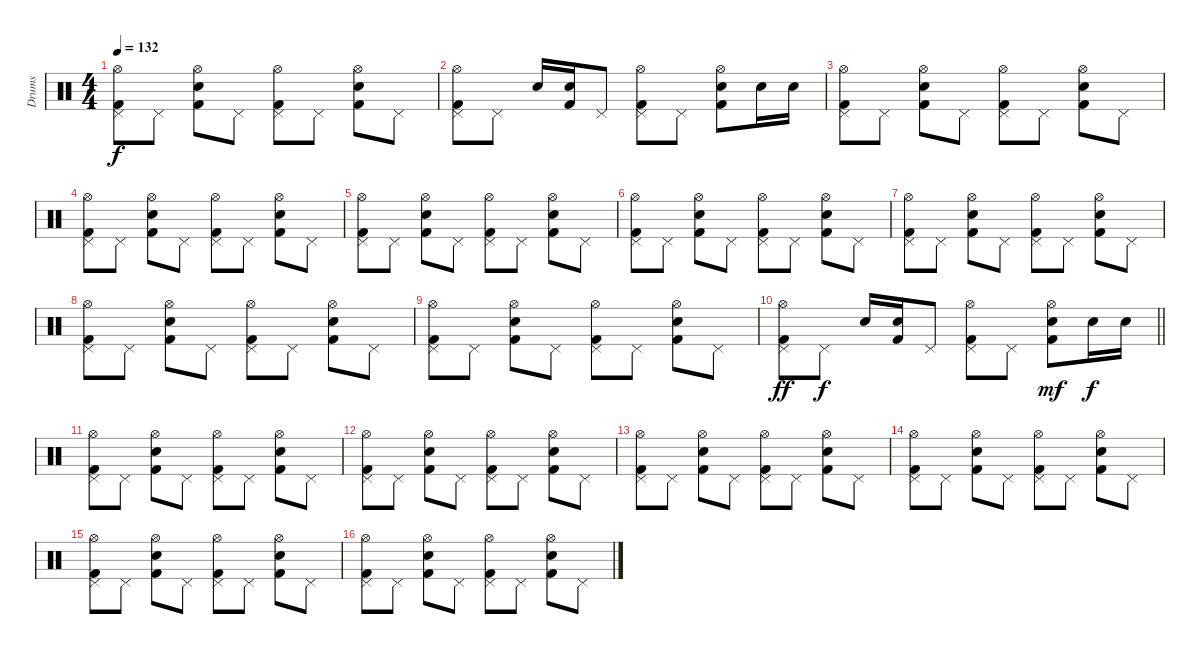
\track ("Drums" "Drums") {instrument percussion}
\staff {score}
\articulation defaults
\ts (4 4)
\tempo 132
\clef neutral
\ks c
("Hi-Hat (open)" "Pedal Hi-Hat (hit)" "Kick (hit) 2").8{dy f} "Pedal Hi-Hat (hit)".8 ("Electric Snare (hit)" "Hi-Hat (open)" "Kick (hit) 2").8 "Pedal Hi-Hat (hit)".8 ("Hi-Hat (open)" "Pedal Hi-Hat (hit)" "Kick (hit) 2").8 "Pedal Hi-Hat (hit)".8 ("Electric Snare (hit)" "Hi-Hat (open)" "Kick (hit) 2").8 "Pedal Hi-Hat (hit)".8 |
("Hi-Hat (open)" "Pedal Hi-Hat (hit)" "Kick (hit) 2").8 "Pedal Hi-Hat (hit)".8 "Electric Snare (hit)".16 ("Electric Snare (hit)" "Kick (hit) 2").16 "Pedal Hi-Hat (hit)".8 ("Hi-Hat (open)" "Pedal Hi-Hat (hit)" "Kick (hit) 2").8 "Pedal Hi-Hat (hit)".8 ("Electric Snare (hit)" "Hi-Hat (open)" "Kick (hit) 2").8 "Electric Snare (hit)".16 "Electric Snare (hit)".16 |
("Hi-Hat (open)" "Pedal Hi-Hat (hit)" "Kick (hit) 2").8 "Pedal Hi-Hat (hit)".8 ("Electric Snare (hit)" "Hi-Hat (open)" "Kick (hit) 2").8 "Pedal Hi-Hat (hit)".8 ("Hi-Hat (open)" "Pedal Hi-Hat (hit)" "Kick (hit) 2").8 "Pedal Hi-Hat (hit)".8 ("Electric Snare (hit)" "Hi-Hat (open)" "Kick (hit) 2").8 "Pedal Hi-Hat (hit)".8 |
("Hi-Hat (open)" "Pedal Hi-Hat (hit)" "Kick (hit) 2").8 "Pedal Hi-Hat (hit)".8 ("Electric Snare (hit)" "Hi-Hat (open)" "Kick (hit) 2").8 "Pedal Hi-Hat (hit)".8 ("Hi-Hat (open)" "Pedal Hi-Hat (hit)" "Kick (hit) 2").8 "Pedal Hi-Hat (hit)".8 ("Electric Snare (hit)" "Hi-Hat (open)" "Kick (hit) 2").8 "Pedal Hi-Hat (hit)".8 |
("Hi-Hat (open)" "Pedal Hi-Hat (hit)" "Kick (hit) 2").8 "Pedal Hi-Hat (hit)".8 ("Electric Snare (hit)" "Hi-Hat (open)" "Kick (hit) 2").8 "Pedal Hi-Hat (hit)".8 ("Hi-Hat (open)" "Pedal Hi-Hat (hit)" "Kick (hit) 2").8 "Pedal Hi-Hat (hit)".8 ("Electric Snare (hit)" "Hi-Hat (open)" "Kick (hit) 2").8 "Pedal Hi-Hat (hit)".8 |
("Hi-Hat (open)" "Pedal Hi-Hat (hit)" "Kick (hit) 2").8 "Pedal Hi-Hat (hit)".8 ("Electric Snare (hit)" "Hi-Hat (open)" "Kick (hit) 2").8 "Pedal Hi-Hat (hit)".8 ("Hi-Hat (open)" "Pedal Hi-Hat (hit)" "Kick (hit) 2").8 "Pedal Hi-Hat (hit)".8 ("Electric Snare (hit)" "Hi-Hat (open)" "Kick (hit) 2").8 "Pedal Hi-Hat (hit)".8 |
("Hi-Hat (open)" "Pedal Hi-Hat (hit)" "Kick (hit) 2").8 "Pedal Hi-Hat (hit)".8 ("Electric Snare (hit)" "Hi-Hat (open)" "Kick (hit) 2").8 "Pedal Hi-Hat (hit)".8 ("Hi-Hat (open)" "Pedal Hi-Hat (hit)" "Kick (hit) 2").8 "Pedal Hi-Hat (hit)".8 ("Electric Snare (hit)" "Hi-Hat (open)" "Kick (hit) 2").8 "Pedal Hi-Hat (hit)".8 |
("Hi-Hat (open)" "Pedal Hi-Hat (hit)" "Kick (hit) 2").8 "Pedal Hi-Hat (hit)".8 ("Electric Snare (hit)" "Hi-Hat (open)" "Kick (hit) 2").8 "Pedal Hi-Hat (hit)".8 ("Hi-Hat (open)" "Pedal Hi-Hat (hit)" "Kick (hit) 2").8 "Pedal Hi-Hat (hit)".8 ("Electric Snare (hit)" "Hi-Hat (open)" "Kick (hit) 2").8 "Pedal Hi-Hat (hit)".8 |
("Hi-Hat (open)" "Pedal Hi-Hat (hit)" "Kick (hit) 2").8 "Pedal Hi-Hat (hit)".8 ("Electric Snare (hit)" "Hi-Hat (open)" "Kick (hit) 2").8 "Pedal Hi-Hat (hit)".8 ("Hi-Hat (open)" "Pedal Hi-Hat (hit)" "Kick (hit) 2").8 "Pedal Hi-Hat (hit)".8 ("Electric Snare (hit)" "Hi-Hat (open)" "Kick (hit) 2").8 "Pedal Hi-Hat (hit)".8 |
\barLineRight lightlight
("Hi-Hat (open)" "Pedal Hi-Hat (hit)" "Kick (hit) 2").8{dy ff} "Pedal Hi-Hat (hit)".8{dy f} "Electric Snare (hit)".16 ("Electric Snare (hit)" "Kick (hit) 2").16 "Pedal Hi-Hat (hit)".8 ("Hi-Hat (open)" "Pedal Hi-Hat (hit)" "Kick (hit) 2").8 "Pedal Hi-Hat (hit)".8 ("Electric Snare (hit)" "Hi-Hat (open)" "Kick (hit) 2").8{dy mf} "Electric Snare (hit)".16{dy f} "Electric Snare (hit)".16 |
\section ("" "")
("Hi-Hat (open)" "Pedal Hi-Hat (hit)" "Kick (hit) 2").8 "Pedal Hi-Hat (hit)".8 ("Electric Snare (hit)" "Hi-Hat (open)" "Kick (hit) 2").8 "Pedal Hi-Hat (hit)".8 ("Hi-Hat (open)" "Pedal Hi-Hat (hit)" "Kick (hit) 2").8 "Pedal Hi-Hat (hit)".8 ("Electric Snare (hit)" "Hi-Hat (open)" "Kick (hit) 2").8 "Pedal Hi-Hat (hit)".8 |
("Hi-Hat (open)" "Pedal Hi-Hat (hit)" "Kick (hit) 2").8 "Pedal Hi-Hat (hit)".8 ("Electric Snare (hit)" "Hi-Hat (open)" "Kick (hit) 2").8 "Pedal Hi-Hat (hit)".8 ("Hi-Hat (open)" "Pedal Hi-Hat (hit)" "Kick (hit) 2").8 "Pedal Hi-Hat (hit)".8 ("Electric Snare (hit)" "Hi-Hat (open)" "Kick (hit) 2").8 "Pedal Hi-Hat (hit)".8 |
("Hi-Hat (open)" "Pedal Hi-Hat (hit)" "Kick (hit) 2").8 "Pedal Hi-Hat (hit)".8 ("Electric Snare (hit)" "Hi-Hat (open)" "Kick (hit) 2").8 "Pedal Hi-Hat (hit)".8 ("Hi-Hat (open)" "Pedal Hi-Hat (hit)" "Kick (hit) 2").8 "Pedal Hi-Hat (hit)".8 ("Electric Snare (hit)" "Hi-Hat (open)" "Kick (hit) 2").8 "Pedal Hi-Hat (hit)".8 |
("Hi-Hat (open)" "Pedal Hi-Hat (hit)" "Kick (hit) 2").8 "Pedal Hi-Hat (hit)".8 ("Electric Snare (hit)" "Hi-Hat (open)" "Kick (hit) 2").8 "Pedal Hi-Hat (hit)".8 ("Hi-Hat (open)" "Pedal Hi-Hat (hit)" "Kick (hit) 2").8 "Pedal Hi-Hat (hit)".8 ("Electric Snare (hit)" "Hi-Hat (open)" "Kick (hit) 2").8 "Pedal Hi-Hat (hit)".8 |
("Hi-Hat (open)" "Pedal Hi-Hat (hit)" "Kick (hit) 2").8 "Pedal Hi-Hat (hit)".8 ("Electric Snare (hit)" "Hi-Hat (open)" "Kick (hit) 2").8 "Pedal Hi-Hat (hit)".8 ("Hi-Hat (open)" "Pedal Hi-Hat (hit)" "Kick (hit) 2").8 "Pedal Hi-Hat (hit)".8 ("Electric Snare (hit)" "Hi-Hat (open)" "Kick (hit) 2").8 "Pedal Hi-Hat (hit)".8 |
("Hi-Hat (open)" "Pedal Hi-Hat (hit)" "Kick (hit) 2").8 "Pedal Hi-Hat (hit)".8 ("Electric Snare (hit)" "Hi-Hat (open)" "Kick (hit) 2").8 "Pedal Hi-Hat (hit)".8 ("Hi-Hat (open)" "Pedal Hi-Hat (hit)" "Kick (hit) 2").8 "Pedal Hi-Hat (hit)".8 ("Electric Snare (hit)" "Hi-Hat (open)" "Kick (hit) 2").8 "Pedal Hi-Hat (hit)".8
